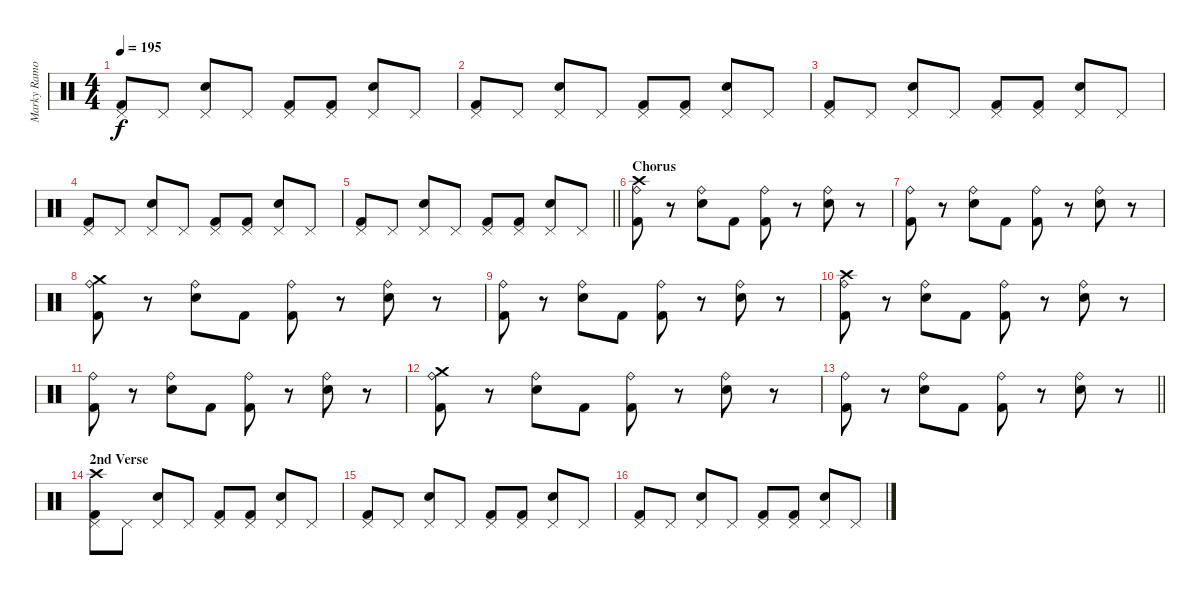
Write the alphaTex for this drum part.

\track ("Marky Ramones" "Marky Ramo") {instrument percussion}
\staff {score}
\articulation defaults
\ts (4 4)
\tempo 195
\clef neutral
\ks c
("Pedal Hi-Hat (hit)" "Kick (hit) 2").8{dy f} "Pedal Hi-Hat (hit)".8 ("Pedal Hi-Hat (hit)" "Electric Snare (hit)").8 "Pedal Hi-Hat (hit)".8 ("Pedal Hi-Hat (hit)" "Kick (hit) 2").8 ("Pedal Hi-Hat (hit)" "Kick (hit) 2").8 ("Pedal Hi-Hat (hit)" "Electric Snare (hit)").8 "Pedal Hi-Hat (hit)".8 |
("Pedal Hi-Hat (hit)" "Kick (hit) 2").8 "Pedal Hi-Hat (hit)".8 ("Pedal Hi-Hat (hit)" "Electric Snare (hit)").8 "Pedal Hi-Hat (hit)".8 ("Pedal Hi-Hat (hit)" "Kick (hit) 2").8 ("Pedal Hi-Hat (hit)" "Kick (hit) 2").8 ("Pedal Hi-Hat (hit)" "Electric Snare (hit)").8 "Pedal Hi-Hat (hit)".8 |
("Pedal Hi-Hat (hit)" "Kick (hit) 2").8 "Pedal Hi-Hat (hit)".8 ("Pedal Hi-Hat (hit)" "Electric Snare (hit)").8 "Pedal Hi-Hat (hit)".8 ("Pedal Hi-Hat (hit)" "Kick (hit) 2").8 ("Pedal Hi-Hat (hit)" "Kick (hit) 2").8 ("Pedal Hi-Hat (hit)" "Electric Snare (hit)").8 "Pedal Hi-Hat (hit)".8 |
("Pedal Hi-Hat (hit)" "Kick (hit) 2").8 "Pedal Hi-Hat (hit)".8 ("Pedal Hi-Hat (hit)" "Electric Snare (hit)").8 "Pedal Hi-Hat (hit)".8 ("Pedal Hi-Hat (hit)" "Kick (hit) 2").8 ("Pedal Hi-Hat (hit)" "Kick (hit) 2").8 ("Pedal Hi-Hat (hit)" "Electric Snare (hit)").8 "Pedal Hi-Hat (hit)".8 |
\barLineRight lightlight
("Pedal Hi-Hat (hit)" "Kick (hit) 2").8 "Pedal Hi-Hat (hit)".8 ("Pedal Hi-Hat (hit)" "Electric Snare (hit)").8 "Pedal Hi-Hat (hit)".8 ("Pedal Hi-Hat (hit)" "Kick (hit) 2").8 ("Pedal Hi-Hat (hit)" "Kick (hit) 2").8 ("Pedal Hi-Hat (hit)" "Electric Snare (hit)").8 "Pedal Hi-Hat (hit)".8 |
\section ("" "Chorus")
("Ride (bell)" "Kick (hit) 2" "Crash high (hit)").8 r.8 ("Ride (bell)" "Electric Snare (hit)").8 "Kick (hit) 2".8 ("Ride (bell)" "Kick (hit) 2").8 r.8 ("Ride (bell)" "Electric Snare (hit)").8 r.8 |
("Ride (bell)" "Kick (hit) 2").8 r.8 ("Ride (bell)" "Electric Snare (hit)").8 "Kick (hit) 2".8 ("Ride (bell)" "Kick (hit) 2").8 r.8 ("Ride (bell)" "Electric Snare (hit)").8 r.8 |
("Ride (bell)" "Kick (hit) 2" "Crash medium (hit)").8 r.8 ("Ride (bell)" "Electric Snare (hit)").8 "Kick (hit) 2".8 ("Ride (bell)" "Kick (hit) 2").8 r.8 ("Ride (bell)" "Electric Snare (hit)").8 r.8 |
("Ride (bell)" "Kick (hit) 2").8 r.8 ("Ride (bell)" "Electric Snare (hit)").8 "Kick (hit) 2".8 ("Ride (bell)" "Kick (hit) 2").8 r.8 ("Ride (bell)" "Electric Snare (hit)").8 r.8 |
("Ride (bell)" "Kick (hit) 2" "Crash high (hit)").8 r.8 ("Ride (bell)" "Electric Snare (hit)").8 "Kick (hit) 2".8 ("Ride (bell)" "Kick (hit) 2").8 r.8 ("Ride (bell)" "Electric Snare (hit)").8 r.8 |
("Ride (bell)" "Kick (hit) 2").8 r.8 ("Ride (bell)" "Electric Snare (hit)").8 "Kick (hit) 2".8 ("Ride (bell)" "Kick (hit) 2").8 r.8 ("Ride (bell)" "Electric Snare (hit)").8 r.8 |
("Ride (bell)" "Kick (hit) 2" "Crash medium (hit)").8 r.8 ("Ride (bell)" "Electric Snare (hit)").8 "Kick (hit) 2".8 ("Ride (bell)" "Kick (hit) 2").8 r.8 ("Ride (bell)" "Electric Snare (hit)").8 r.8 |
\barLineRight lightlight
("Ride (bell)" "Kick (hit) 2").8 r.8 ("Ride (bell)" "Electric Snare (hit)").8 "Kick (hit) 2".8 ("Ride (bell)" "Kick (hit) 2").8 r.8 ("Ride (bell)" "Electric Snare (hit)").8 r.8 |
\section ("" "2nd Verse")
("Pedal Hi-Hat (hit)" "Kick (hit) 2" "Crash high (hit)").8 "Pedal Hi-Hat (hit)".8 ("Pedal Hi-Hat (hit)" "Electric Snare (hit)").8 "Pedal Hi-Hat (hit)".8 ("Pedal Hi-Hat (hit)" "Kick (hit) 2").8 ("Pedal Hi-Hat (hit)" "Kick (hit) 2").8 ("Pedal Hi-Hat (hit)" "Electric Snare (hit)").8 "Pedal Hi-Hat (hit)".8 |
("Pedal Hi-Hat (hit)" "Kick (hit) 2").8 "Pedal Hi-Hat (hit)".8 ("Pedal Hi-Hat (hit)" "Electric Snare (hit)").8 "Pedal Hi-Hat (hit)".8 ("Pedal Hi-Hat (hit)" "Kick (hit) 2").8 ("Pedal Hi-Hat (hit)" "Kick (hit) 2").8 ("Pedal Hi-Hat (hit)" "Electric Snare (hit)").8 "Pedal Hi-Hat (hit)".8 |
("Pedal Hi-Hat (hit)" "Kick (hit) 2").8 "Pedal Hi-Hat (hit)".8 ("Pedal Hi-Hat (hit)" "Electric Snare (hit)").8 "Pedal Hi-Hat (hit)".8 ("Pedal Hi-Hat (hit)" "Kick (hit) 2").8 ("Pedal Hi-Hat (hit)" "Kick (hit) 2").8 ("Pedal Hi-Hat (hit)" "Electric Snare (hit)").8 "Pedal Hi-Hat (hit)".8
